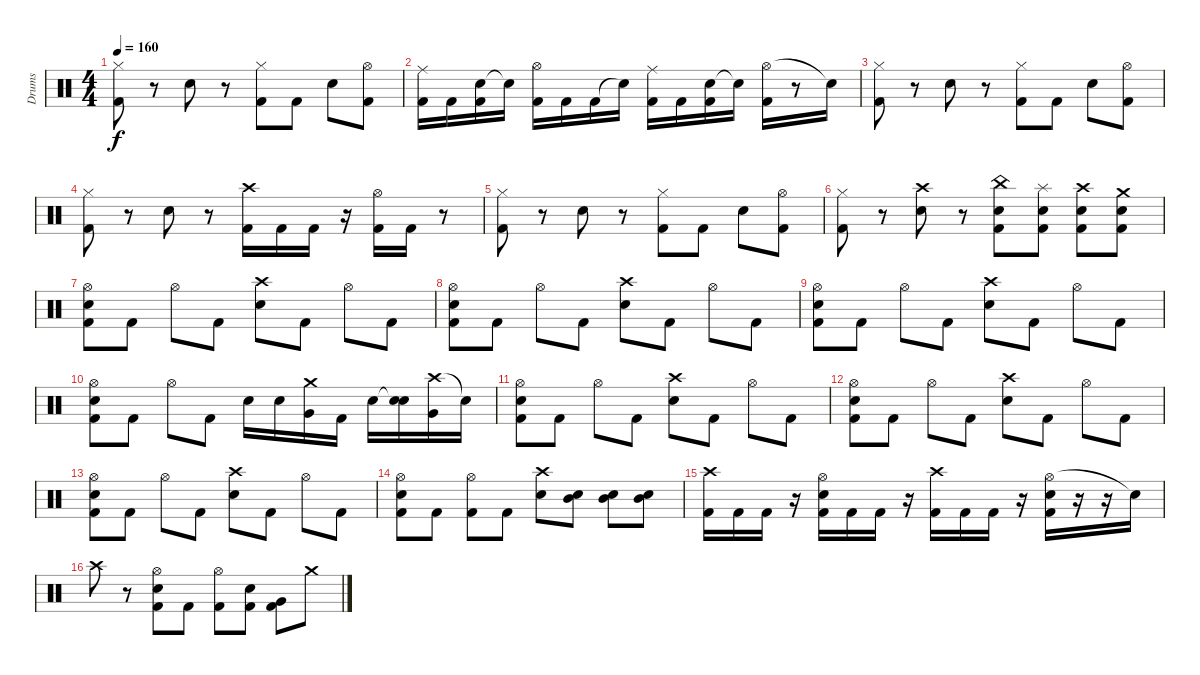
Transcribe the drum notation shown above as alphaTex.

\track ("Drums" "Drums") {instrument percussion}
\staff {score}
\articulation defaults
\ts (4 4)
\tempo 160
\clef neutral
\ks c
("Hi-Hat (closed)" "Kick (hit) 2").8{dy f} r.8 "Snare (hit) 2".8 r.8 ("Hi-Hat (closed)" "Kick (hit) 2").8 "Kick (hit) 2".8 "Snare (hit) 2".8 ("Hi-Hat (open)" "Kick (hit) 2").8 |
("Ride (middle)" "Kick (hit) 2").16 "Kick (hit) 2".16 ("Snare (hit) 2" "Kick (hit) 2").16 "Snare (hit)"{t}.16 ("Hi-Hat (open)" "Kick (hit) 2").16 "Kick (hit) 2".16 "Kick (hit) 2".16 "Snare (hit)"{t}.16 ("Ride (middle)" "Kick (hit) 2").16 "Kick (hit) 2".16 ("Snare (hit) 2" "Kick (hit) 2").16 "Snare (hit)"{t}.16 ("Hi-Hat (open)" "Kick (hit) 2").16 r.8 "Snare (hit)"{t}.16 |
("Hi-Hat (closed)" "Kick (hit) 2").8 r.8 "Snare (hit) 2".8 r.8 ("Hi-Hat (closed)" "Kick (hit) 2").8 "Kick (hit) 2".8 "Snare (hit) 2".8 ("Hi-Hat (open)" "Kick (hit) 2").8 |
("Hi-Hat (closed)" "Kick (hit) 2").8 r.8 "Snare (hit) 2".8 r.8 ("Crash high (hit)" "Kick (hit) 2").16 "Kick (hit) 2".16 "Kick (hit) 2".16 r.16 ("Hi-Hat (open)" "Kick (hit) 2").16 "Kick (hit) 2".16 r.8 |
("Hi-Hat (closed)" "Kick (hit) 2").8 r.8 "Snare (hit) 2".8 r.8 ("Hi-Hat (closed)" "Kick (hit) 2").8 "Kick (hit) 2".8 "Snare (hit) 2".8 ("Hi-Hat (open)" "Kick (hit) 2").8 |
("Hi-Hat (closed)" "Kick (hit) 2").8 r.8 ("Crash high (hit)" "Snare (hit) 2").8 r.8 ("Snare (hit) 2" "China (hit)" "Kick (hit) 2").8 ("Snare (hit) 2" "Splash (hit)" "Kick (hit) 2").8 ("Crash high (hit)" "Snare (hit) 2" "Kick (hit) 2").8 ("Snare (hit) 2" "Crash medium (hit)" "Kick (hit) 2").8 |
("Hi-Hat (open)" "Snare (hit) 2" "Kick (hit) 2").8 "Kick (hit) 2".8 "Hi-Hat (open)".8 "Kick (hit) 2".8 ("Crash high (hit)" "Snare (hit) 2").8 "Kick (hit) 2".8 "Hi-Hat (open)".8 "Kick (hit) 2".8 |
("Hi-Hat (open)" "Snare (hit) 2" "Kick (hit) 2").8 "Kick (hit) 2".8 "Hi-Hat (open)".8 "Kick (hit) 2".8 ("Crash high (hit)" "Snare (hit) 2").8 "Kick (hit) 2".8 "Hi-Hat (open)".8 "Kick (hit) 2".8 |
("Hi-Hat (open)" "Snare (hit) 2" "Kick (hit) 2").8 "Kick (hit) 2".8 "Hi-Hat (open)".8 "Kick (hit) 2".8 ("Crash high (hit)" "Snare (hit) 2").8 "Kick (hit) 2".8 "Hi-Hat (open)".8 "Kick (hit) 2".8 |
("Hi-Hat (open)" "Snare (hit) 2" "Kick (hit) 2").8 "Kick (hit) 2".8 "Hi-Hat (open)".8 "Kick (hit) 2".8 "Snare (hit) 2".16 "Snare (hit) 2".16 ("Crash medium (hit)" "Very Low Tom (hit)").16 "Kick (hit) 2".16 "Snare (hit) 2".16 ("Snare (hit)"{t} "Snare (hit) 2").16 ("Crash high (hit)" "Very Low Tom (hit)").16 "Snare (hit)"{t}.16 |
("Hi-Hat (open)" "Snare (hit) 2" "Kick (hit) 2").8 "Kick (hit) 2".8 "Hi-Hat (open)".8 "Kick (hit) 2".8 ("Crash high (hit)" "Snare (hit) 2").8 "Kick (hit) 2".8 "Hi-Hat (open)".8 "Kick (hit) 2".8 |
("Hi-Hat (open)" "Snare (hit) 2" "Kick (hit) 2").8 "Kick (hit) 2".8 "Hi-Hat (open)".8 "Kick (hit) 2".8 ("Crash high (hit)" "Snare (hit) 2").8 "Kick (hit) 2".8 "Hi-Hat (open)".8 "Kick (hit) 2".8 |
("Hi-Hat (open)" "Snare (hit) 2" "Kick (hit) 2").8 "Kick (hit) 2".8 "Hi-Hat (open)".8 "Kick (hit) 2".8 ("Crash high (hit)" "Snare (hit) 2").8 "Kick (hit) 2".8 "Hi-Hat (open)".8 "Kick (hit) 2".8 |
("Hi-Hat (open)" "Snare (hit) 2" "Kick (hit) 2").8 "Kick (hit) 2".8 ("Hi-Hat (open)" "Kick (hit) 2").8 "Kick (hit) 2".8 ("Crash high (hit)" "Snare (hit) 2").8 ("Snare (hit) 2" "Mid Tom (hit)").8 ("Snare (hit) 2" "Mid Tom (hit)").8 ("Snare (hit) 2" "Mid Tom (hit)").8 |
("Crash high (hit)" "Kick (hit) 2").16 "Kick (hit) 2".16 "Kick (hit) 2".16 r.16 ("Hi-Hat (open)" "Snare (hit) 2" "Kick (hit) 2").16 "Kick (hit) 2".16 "Kick (hit) 2".16 r.16 ("Crash high (hit)" "Kick (hit) 2").16 "Kick (hit) 2".16 "Kick (hit) 2".16 r.16 ("Hi-Hat (open)" "Snare (hit) 2" "Kick (hit) 2").16 r.16 r.16 "Snare (hit)"{t}.16 |
"Crash high (hit)".8 r.8 ("Hi-Hat (open)" "Snare (hit) 2" "Kick (hit) 2").8 "Kick (hit) 2".8 ("Hi-Hat (open)" "Kick (hit) 2").8 ("Snare (hit) 2" "Kick (hit) 2").8 ("Very Low Tom (hit)" "Kick (hit) 2").8 "Crash medium (hit)".8
